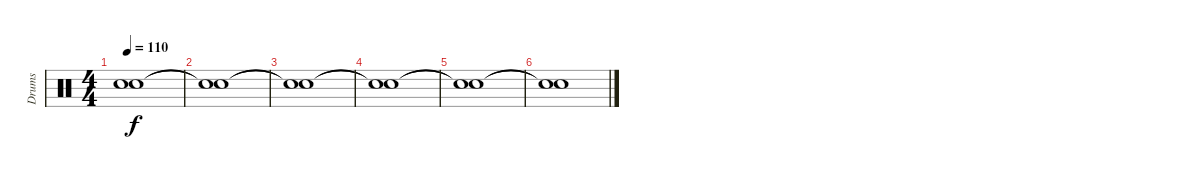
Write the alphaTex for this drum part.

\track ("Drums" "Drums") {instrument percussion}
\staff {score}
\articulation defaults
\ts (4 4)
\tempo 110
\clef neutral
\ks c
("Snare (hit)"{t} "Snare (hit)"{t}).1{dy f} |
("Snare (hit)"{t} "Snare (hit)"{t}).1 |
("Snare (hit)"{t} "Snare (hit)"{t}).1 |
("Snare (hit)"{t} "Snare (hit)"{t}).1 |
("Snare (hit)"{t} "Snare (hit)"{t}).1 |
("Snare (hit)"{t} "Snare (hit)"{t}).1
